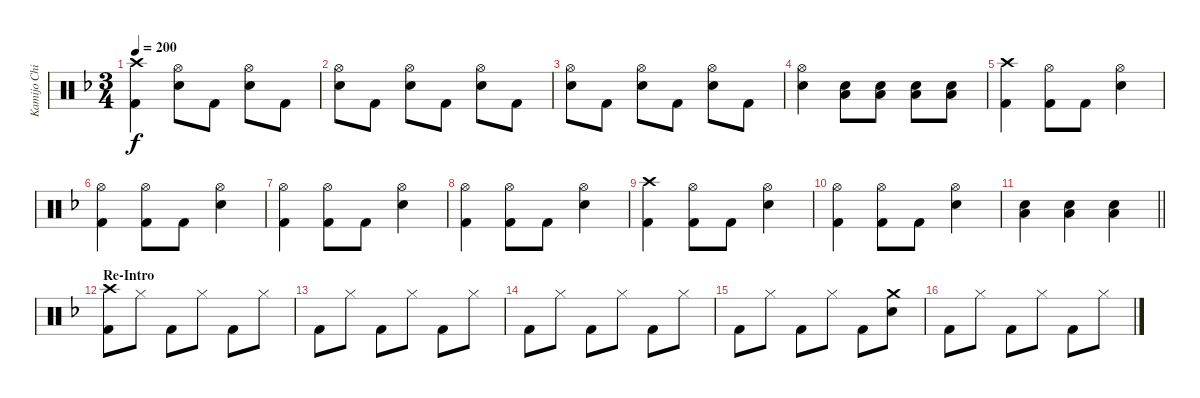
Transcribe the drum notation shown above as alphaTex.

\track ("Kamijo Chihiro" "Kamijo Chi") {instrument percussion}
\staff {score}
\articulation defaults
\ts (3 4)
\tempo 200
\clef neutral
\ks dminor
("Crash high (hit)" "Kick (hit) 2").4{dy f} ("Hi-Hat (open)" "Snare (hit) 2").8 "Kick (hit) 2".8 ("Hi-Hat (open)" "Snare (hit) 2").8 "Kick (hit) 2".8 |
("Hi-Hat (open)" "Snare (hit) 2").8 "Kick (hit) 2".8 ("Hi-Hat (open)" "Snare (hit) 2").8 "Kick (hit) 2".8 ("Hi-Hat (open)" "Snare (hit) 2").8 "Kick (hit) 2".8 |
("Hi-Hat (open)" "Snare (hit) 2").8 "Kick (hit) 2".8 ("Hi-Hat (open)" "Snare (hit) 2").8 "Kick (hit) 2".8 ("Hi-Hat (open)" "Snare (hit) 2").8 "Kick (hit) 2".8 |
("Hi-Hat (open)" "Snare (hit) 2").4 ("Snare (hit) 2" "Low Floor Tom (hit)").8 ("Snare (hit) 2" "Low Floor Tom (hit)").8 ("Snare (hit) 2" "Low Floor Tom (hit)").8 ("Snare (hit) 2" "Low Floor Tom (hit)").8 |
("Crash high (hit)" "Kick (hit) 2").4 ("Hi-Hat (open)" "Kick (hit) 2").8 "Kick (hit) 2".8 ("Hi-Hat (open)" "Snare (hit) 2").4 |
("Hi-Hat (open)" "Kick (hit) 2").4 ("Hi-Hat (open)" "Kick (hit) 2").8 "Kick (hit) 2".8 ("Hi-Hat (open)" "Snare (hit) 2").4 |
("Hi-Hat (open)" "Kick (hit) 2").4 ("Hi-Hat (open)" "Kick (hit) 2").8 "Kick (hit) 2".8 ("Hi-Hat (open)" "Snare (hit) 2").4 |
("Hi-Hat (open)" "Kick (hit) 2").4 ("Hi-Hat (open)" "Kick (hit) 2").8 "Kick (hit) 2".8 ("Hi-Hat (open)" "Snare (hit) 2").4 |
("Crash high (hit)" "Kick (hit) 2").4 ("Hi-Hat (open)" "Kick (hit) 2").8 "Kick (hit) 2".8 ("Hi-Hat (open)" "Snare (hit) 2").4 |
("Hi-Hat (open)" "Kick (hit) 2").4 ("Hi-Hat (open)" "Kick (hit) 2").8 "Kick (hit) 2".8 ("Hi-Hat (open)" "Snare (hit) 2").4 |
\barLineRight lightlight
("Low Tom (hit)" "Snare (hit) 2").4 ("Low Tom (hit)" "Snare (hit) 2").4 ("Low Tom (hit)" "Snare (hit) 2").4 |
\section ("" "Re-Intro")
("Crash high (hit)" "Kick (hit) 2").8 "Hi-Hat (closed)".8 "Kick (hit) 2".8 "Hi-Hat (closed)".8 "Kick (hit) 2".8 "Hi-Hat (closed)".8 |
"Kick (hit) 2".8 "Hi-Hat (closed)".8 "Kick (hit) 2".8 "Hi-Hat (closed)".8 "Kick (hit) 2".8 "Hi-Hat (closed)".8 |
"Kick (hit) 2".8 "Hi-Hat (closed)".8 "Kick (hit) 2".8 "Hi-Hat (closed)".8 "Kick (hit) 2".8 "Hi-Hat (closed)".8 |
"Kick (hit) 2".8 "Hi-Hat (closed)".8 "Kick (hit) 2".8 "Hi-Hat (closed)".8 "Kick (hit) 2".8 ("Crash medium (hit)" "Snare (hit) 2").8 |
"Kick (hit) 2".8 "Hi-Hat (closed)".8 "Kick (hit) 2".8 "Hi-Hat (closed)".8 "Kick (hit) 2".8 "Hi-Hat (closed)".8
